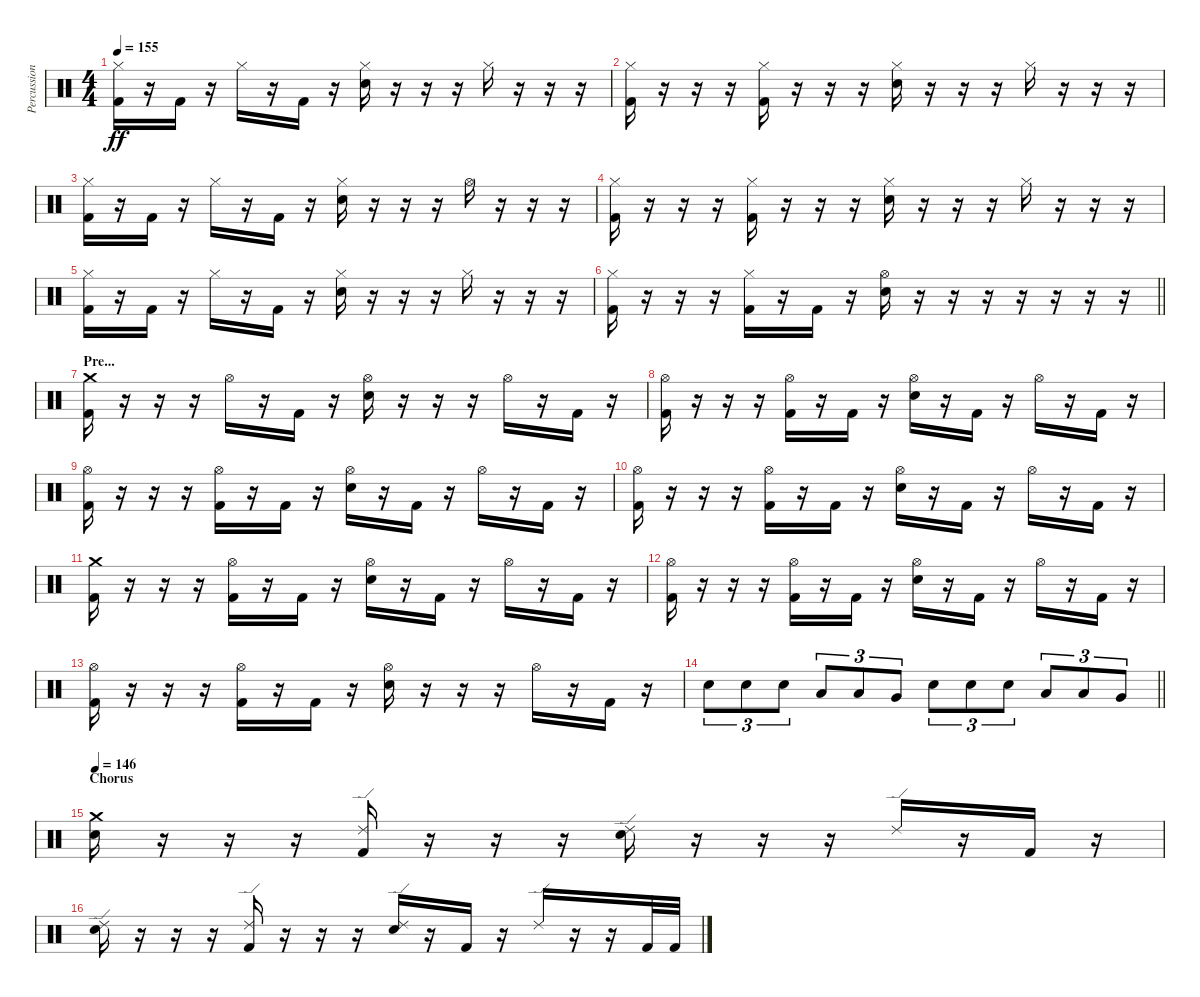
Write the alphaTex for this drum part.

\track ("Percussion" "Percussion") {instrument percussion}
\staff {score}
\articulation defaults
\ts (4 4)
\tempo 155
\clef neutral
\ks c
("Hi-Hat (closed)" "Kick (hit) 2").16{dy ff} r.16 "Kick (hit) 2".16 r.16 "Hi-Hat (closed)".16 r.16 "Kick (hit) 2".16 r.16 ("Hi-Hat (closed)" "Electric Snare (hit)").16 r.16 r.16 r.16 "Hi-Hat (closed)".16 r.16 r.16 r.16 |
("Hi-Hat (closed)" "Kick (hit) 2").16 r.16 r.16 r.16 ("Hi-Hat (closed)" "Kick (hit) 2").16 r.16 r.16 r.16 ("Hi-Hat (closed)" "Electric Snare (hit)").16 r.16 r.16 r.16 "Hi-Hat (closed)".16 r.16 r.16 r.16 |
("Hi-Hat (closed)" "Kick (hit) 2").16 r.16 "Kick (hit) 2".16 r.16 "Hi-Hat (closed)".16 r.16 "Kick (hit) 2".16 r.16 ("Hi-Hat (closed)" "Electric Snare (hit)").16 r.16 r.16 r.16 "Hi-Hat (open)".16 r.16 r.16 r.16 |
("Hi-Hat (closed)" "Kick (hit) 2").16 r.16 r.16 r.16 ("Hi-Hat (closed)" "Kick (hit) 2").16 r.16 r.16 r.16 ("Hi-Hat (closed)" "Electric Snare (hit)").16 r.16 r.16 r.16 "Hi-Hat (closed)".16 r.16 r.16 r.16 |
("Hi-Hat (closed)" "Kick (hit) 2").16 r.16 "Kick (hit) 2".16 r.16 "Hi-Hat (closed)".16 r.16 "Kick (hit) 2".16 r.16 ("Hi-Hat (closed)" "Electric Snare (hit)").16 r.16 r.16 r.16 "Hi-Hat (closed)".16 r.16 r.16 r.16 |
\barLineRight lightlight
("Hi-Hat (closed)" "Kick (hit) 2").16 r.16 r.16 r.16 ("Hi-Hat (closed)" "Kick (hit) 2").16 r.16 "Kick (hit) 2".16 r.16 ("Hi-Hat (open)" "Electric Snare (hit)").16 r.16 r.16 r.16 r.16 r.16 r.16 r.16 |
\section ("" "Pre...")
("Crash medium (hit)" "Kick (hit) 2").16 r.16 r.16 r.16 "Hi-Hat (open)".16 r.16 "Kick (hit) 2".16 r.16 ("Hi-Hat (open)" "Electric Snare (hit)").16 r.16 r.16 r.16 "Hi-Hat (open)".16 r.16 "Kick (hit) 2".16 r.16 |
("Hi-Hat (open)" "Kick (hit) 2").16 r.16 r.16 r.16 ("Hi-Hat (open)" "Kick (hit) 2").16 r.16 "Kick (hit) 2".16 r.16 ("Hi-Hat (open)" "Electric Snare (hit)").16 r.16 "Kick (hit) 2".16 r.16 "Hi-Hat (open)".16 r.16 "Kick (hit) 2".16 r.16 |
("Hi-Hat (open)" "Kick (hit) 2").16 r.16 r.16 r.16 ("Hi-Hat (open)" "Kick (hit) 2").16 r.16 "Kick (hit) 2".16 r.16 ("Hi-Hat (open)" "Electric Snare (hit)").16 r.16 "Kick (hit) 2".16 r.16 "Hi-Hat (open)".16 r.16 "Kick (hit) 2".16 r.16 |
("Hi-Hat (open)" "Kick (hit) 2").16 r.16 r.16 r.16 ("Hi-Hat (open)" "Kick (hit) 2").16 r.16 "Kick (hit) 2".16 r.16 ("Hi-Hat (open)" "Electric Snare (hit)").16 r.16 "Kick (hit) 2".16 r.16 "Hi-Hat (open)".16 r.16 "Kick (hit) 2".16 r.16 |
("Crash medium (hit)" "Kick (hit) 2").16 r.16 r.16 r.16 ("Hi-Hat (open)" "Kick (hit) 2").16 r.16 "Kick (hit) 2".16 r.16 ("Hi-Hat (open)" "Electric Snare (hit)").16 r.16 "Kick (hit) 2".16 r.16 "Hi-Hat (open)".16 r.16 "Kick (hit) 2".16 r.16 |
("Hi-Hat (open)" "Kick (hit) 2").16 r.16 r.16 r.16 ("Hi-Hat (open)" "Kick (hit) 2").16 r.16 "Kick (hit) 2".16 r.16 ("Hi-Hat (open)" "Electric Snare (hit)").16 r.16 "Kick (hit) 2".16 r.16 "Hi-Hat (open)".16 r.16 "Kick (hit) 2".16 r.16 |
("Hi-Hat (open)" "Kick (hit) 2").16 r.16 r.16 r.16 ("Hi-Hat (open)" "Kick (hit) 2").16 r.16 "Kick (hit) 2".16 r.16 ("Hi-Hat (open)" "Electric Snare (hit)").16 r.16 r.16 r.16 "Hi-Hat (open)".16 r.16 "Kick (hit) 2".16 r.16 |
\barLineRight lightlight "Electric Snare (hit)".8{tu (3 2)} "Electric Snare (hit)".8{tu (3 2)} "Electric Snare (hit)".8{tu (3 2)} "Low Tom (hit)".8{tu (3 2)} "Low Tom (hit)".8{tu (3 2)} "Very Low Tom (hit)".8{tu (3 2)} "Electric Snare (hit)".8{tu (3 2)} "Electric Snare (hit)".8{tu (3 2)} "Electric Snare (hit)".8{tu (3 2)} "Low Tom (hit)".8{tu (3 2)} "Low Tom (hit)".8{tu (3 2)} "Very Low Tom (hit)".8{tu (3 2)}
|
\section ("" "Chorus")
\tempo 146
("Crash medium (hit)" "Electric Snare (hit)").16 r.16 r.16 r.16 ("Ride (edge) 2" "Kick (hit) 2").16 r.16 r.16 r.16 ("Ride (edge) 2" "Electric Snare (hit)").16 r.16 r.16 r.16 "Ride (edge) 2".16 r.16 "Kick (hit) 2".16 r.16 |
("Ride (edge) 2" "Electric Snare (hit)").16 r.16 r.16 r.16 ("Ride (edge) 2" "Kick (hit) 2").16 r.16 r.16 r.16 ("Ride (edge) 2" "Electric Snare (hit)").16 r.16 "Kick (hit) 2".16 r.16 "Ride (edge) 2".16 r.16 r.16 "Kick (hit) 2".32 "Kick (hit) 2".32
